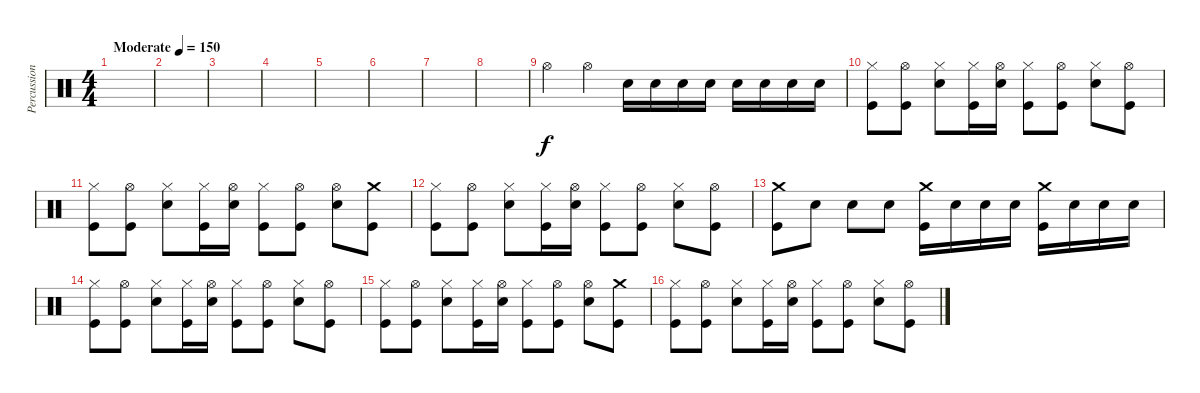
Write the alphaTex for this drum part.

\track ("Percussion" "Percussion") {instrument percussion}
\staff {score}
\articulation defaults
\ts (4 4)
\tempo (150 "Moderate")
\clef neutral
\ks c
|
|
|
|
|
|
|
|
"Hi-Hat (open)".4 "Hi-Hat (open)".4 "Electric Snare (hit)".16 "Electric Snare (hit)".16 "Electric Snare (hit)".16 "Electric Snare (hit)".16 "Electric Snare (hit)".16 "Electric Snare (hit)".16 "Electric Snare (hit)".16 "Electric Snare (hit)".16 |
("Hi-Hat (closed)" "Kick (hit)").8 ("Hi-Hat (open)" "Kick (hit)").8 ("Hi-Hat (closed)" "Electric Snare (hit)").8 ("Hi-Hat (closed)" "Kick (hit)").16 ("Hi-Hat (open)" "Electric Snare (hit)").16 ("Hi-Hat (closed)" "Kick (hit)").8 ("Hi-Hat (open)" "Kick (hit)").8 ("Hi-Hat (closed)" "Electric Snare (hit)").8 ("Hi-Hat (open)" "Kick (hit)").8 |
("Hi-Hat (closed)" "Kick (hit)").8 ("Hi-Hat (open)" "Kick (hit)").8 ("Hi-Hat (closed)" "Electric Snare (hit)").8 ("Hi-Hat (closed)" "Kick (hit)").16 ("Hi-Hat (open)" "Electric Snare (hit)").16 ("Hi-Hat (closed)" "Kick (hit)").8 ("Hi-Hat (open)" "Kick (hit)").8 ("Hi-Hat (open)" "Electric Snare (hit)").8 ("Crash medium (hit)" "Kick (hit)").8 |
("Hi-Hat (closed)" "Kick (hit)").8 ("Hi-Hat (open)" "Kick (hit)").8 ("Hi-Hat (closed)" "Electric Snare (hit)").8 ("Hi-Hat (closed)" "Kick (hit)").16 ("Hi-Hat (open)" "Electric Snare (hit)").16 ("Hi-Hat (closed)" "Kick (hit)").8 ("Hi-Hat (open)" "Kick (hit)").8 ("Hi-Hat (closed)" "Electric Snare (hit)").8 ("Hi-Hat (open)" "Kick (hit)").8 |
("Crash medium (hit)" "Kick (hit)").8 "Electric Snare (hit)".8 "Electric Snare (hit)".8 "Electric Snare (hit)".8 ("Crash medium (hit)" "Kick (hit)").16 "Electric Snare (hit)".16 "Electric Snare (hit)".16 "Electric Snare (hit)".16 ("Crash medium (hit)" "Kick (hit)").16 "Electric Snare (hit)".16 "Electric Snare (hit)".16 "Electric Snare (hit)".16 |
("Hi-Hat (closed)" "Kick (hit)").8 ("Hi-Hat (open)" "Kick (hit)").8 ("Hi-Hat (closed)" "Electric Snare (hit)").8 ("Hi-Hat (closed)" "Kick (hit)").16 ("Hi-Hat (open)" "Electric Snare (hit)").16 ("Hi-Hat (closed)" "Kick (hit)").8 ("Hi-Hat (open)" "Kick (hit)").8 ("Hi-Hat (closed)" "Electric Snare (hit)").8 ("Hi-Hat (open)" "Kick (hit)").8 |
("Hi-Hat (closed)" "Kick (hit)").8 ("Hi-Hat (open)" "Kick (hit)").8 ("Hi-Hat (closed)" "Electric Snare (hit)").8 ("Hi-Hat (closed)" "Kick (hit)").16 ("Hi-Hat (open)" "Electric Snare (hit)").16 ("Hi-Hat (closed)" "Kick (hit)").8 ("Hi-Hat (open)" "Kick (hit)").8 ("Hi-Hat (open)" "Electric Snare (hit)").8 ("Crash medium (hit)" "Kick (hit)").8 |
("Hi-Hat (closed)" "Kick (hit)").8 ("Hi-Hat (open)" "Kick (hit)").8 ("Hi-Hat (closed)" "Electric Snare (hit)").8 ("Hi-Hat (closed)" "Kick (hit)").16 ("Hi-Hat (open)" "Electric Snare (hit)").16 ("Hi-Hat (closed)" "Kick (hit)").8 ("Hi-Hat (open)" "Kick (hit)").8 ("Hi-Hat (closed)" "Electric Snare (hit)").8 ("Hi-Hat (open)" "Kick (hit)").8
